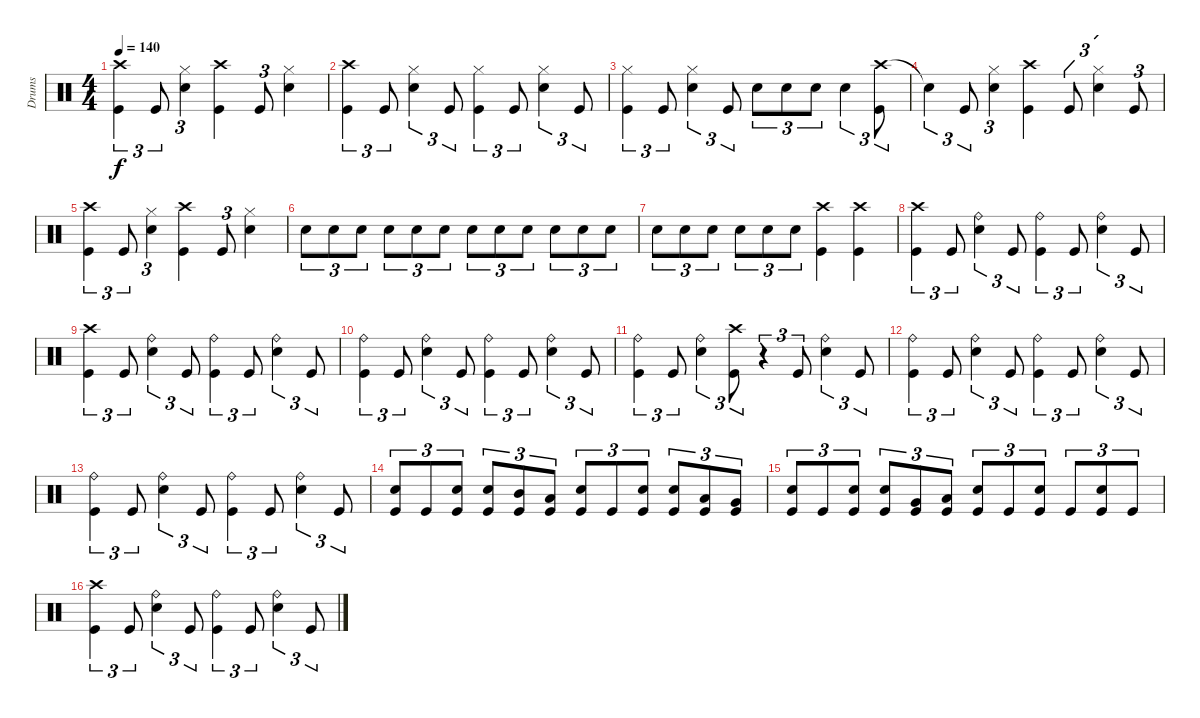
\track ("Drums" "Drums") {instrument percussion}
\staff {score}
\articulation defaults
\ts (4 4)
\tempo 140
\clef neutral
\ks c
("Crash high (hit)" "Kick (hit)").4{tu (3 2) dy f} "Kick (hit)".8{tu (3 2)} ("Hi-Hat (closed)" "Snare (hit) 2").4{tu (3 2)} ("Crash high (hit)" "Kick (hit)").4 "Kick (hit)".8{tu (3 2)} ("Hi-Hat (closed)" "Snare (hit) 2").4 |
("Crash high (hit)" "Kick (hit)").4{tu (3 2)} "Kick (hit)".8{tu (3 2)} ("Hi-Hat (closed)" "Snare (hit) 2").4{tu (3 2)} "Kick (hit)".8{tu (3 2)} ("Hi-Hat (closed)" "Kick (hit)").4{tu (3 2)} "Kick (hit)".8{tu (3 2)} ("Hi-Hat (closed)" "Snare (hit) 2").4{tu (3 2)} "Kick (hit)".8{tu (3 2)} |
("Hi-Hat (closed)" "Kick (hit)").4{tu (3 2)} "Kick (hit)".8{tu (3 2)} ("Hi-Hat (closed)" "Snare (hit) 2").4{tu (3 2)} "Kick (hit)".8{tu (3 2)} "Snare (hit) 2".8{tu (3 2)} "Snare (hit) 2".8{tu (3 2)} "Snare (hit) 2".8{tu (3 2)} "Snare (hit) 2".4{tu (3 2)} ("Crash high (hit)" "Kick (hit)").8{tu (3 2)} |
"Snare (hit)"{t}.4{tu (3 2)} "Kick (hit)".8{tu (3 2)} ("Hi-Hat (closed)" "Snare (hit) 2").4{tu (3 2)} ("Crash high (hit)" "Kick (hit)").4 "Kick (hit)".8{tu (3 2)} ("Hi-Hat (closed)" "Snare (hit) 2").4{tu (3 2)} "Kick (hit)".8{tu (3 2)} |
("Crash high (hit)" "Kick (hit)").4{tu (3 2)} "Kick (hit)".8{tu (3 2)} ("Hi-Hat (closed)" "Snare (hit) 2").4{tu (3 2)} ("Crash high (hit)" "Kick (hit)").4 "Kick (hit)".8{tu (3 2)} ("Hi-Hat (closed)" "Snare (hit) 2").4 |
"Snare (hit) 2".8{tu (3 2)} "Snare (hit) 2".8{tu (3 2)} "Snare (hit) 2".8{tu (3 2)} "Snare (hit) 2".8{tu (3 2)} "Snare (hit) 2".8{tu (3 2)} "Snare (hit) 2".8{tu (3 2)} "Snare (hit) 2".8{tu (3 2)} "Snare (hit) 2".8{tu (3 2)} "Snare (hit) 2".8{tu (3 2)} "Snare (hit) 2".8{tu (3 2)} "Snare (hit) 2".8{tu (3 2)} "Snare (hit) 2".8{tu (3 2)} |
"Snare (hit) 2".8{tu (3 2)} "Snare (hit) 2".8{tu (3 2)} "Snare (hit) 2".8{tu (3 2)} "Snare (hit) 2".8{tu (3 2)} "Snare (hit) 2".8{tu (3 2)} "Snare (hit) 2".8{tu (3 2)} ("Crash high (hit)" "Kick (hit)").4 ("Crash high (hit)" "Kick (hit)").4 |
("Crash high (hit)" "Kick (hit)").4{tu (3 2)} "Kick (hit)".8{tu (3 2)} ("Ride (bell)" "Snare (hit) 2").4{tu (3 2)} "Kick (hit)".8{tu (3 2)} ("Ride (bell)" "Kick (hit)").4{tu (3 2)} "Kick (hit)".8{tu (3 2)} ("Ride (bell)" "Snare (hit) 2").4{tu (3 2)} "Kick (hit)".8{tu (3 2)} |
("Crash high (hit)" "Kick (hit)").4{tu (3 2)} "Kick (hit)".8{tu (3 2)} ("Ride (bell)" "Snare (hit) 2").4{tu (3 2)} "Kick (hit)".8{tu (3 2)} ("Ride (bell)" "Kick (hit)").4{tu (3 2)} "Kick (hit)".8{tu (3 2)} ("Ride (bell)" "Snare (hit) 2").4{tu (3 2)} "Kick (hit)".8{tu (3 2)} |
("Ride (bell)" "Kick (hit)").4{tu (3 2)} "Kick (hit)".8{tu (3 2)} ("Ride (bell)" "Snare (hit) 2").4{tu (3 2)} "Kick (hit)".8{tu (3 2)} ("Ride (bell)" "Kick (hit)").4{tu (3 2)} "Kick (hit)".8{tu (3 2)} ("Ride (bell)" "Snare (hit) 2").4{tu (3 2)} "Kick (hit)".8{tu (3 2)} |
("Ride (bell)" "Kick (hit)").4{tu (3 2)} "Kick (hit)".8{tu (3 2)} ("Ride (bell)" "Snare (hit) 2").4{tu (3 2)} ("Crash high (hit)" "Kick (hit)").8{tu (3 2)} r.4{tu (3 2)} "Kick (hit)".8{tu (3 2)} ("Ride (bell)" "Snare (hit) 2").4{tu (3 2)} "Kick (hit)".8{tu (3 2)} |
("Ride (bell)" "Kick (hit)").4{tu (3 2)} "Kick (hit)".8{tu (3 2)} ("Ride (bell)" "Snare (hit) 2").4{tu (3 2)} "Kick (hit)".8{tu (3 2)} ("Ride (bell)" "Kick (hit)").4{tu (3 2)} "Kick (hit)".8{tu (3 2)} ("Ride (bell)" "Snare (hit) 2").4{tu (3 2)} "Kick (hit)".8{tu (3 2)} |
("Ride (bell)" "Kick (hit)").4{tu (3 2)} "Kick (hit)".8{tu (3 2)} ("Ride (bell)" "Snare (hit) 2").4{tu (3 2)} "Kick (hit)".8{tu (3 2)} ("Ride (bell)" "Kick (hit)").4{tu (3 2)} "Kick (hit)".8{tu (3 2)} ("Ride (bell)" "Snare (hit) 2").4{tu (3 2)} "Kick (hit)".8{tu (3 2)} |
("Snare (hit) 2" "Kick (hit)").8{tu (3 2)} "Kick (hit)".8{tu (3 2)} ("Snare (hit) 2" "Kick (hit)").8{tu (3 2)} ("Snare (hit) 2" "Kick (hit)").8{tu (3 2)} ("Mid Tom (hit)" "Kick (hit)").8{tu (3 2)} ("Low Tom (hit)" "Kick (hit)").8{tu (3 2)} ("Snare (hit) 2" "Kick (hit)").8{tu (3 2)} "Kick (hit)".8{tu (3 2)} ("Snare (hit) 2" "Kick (hit)").8{tu (3 2)} ("Snare (hit) 2" "Kick (hit)").8{tu (3 2)} ("Low Tom (hit)" "Kick (hit)").8{tu (3 2)} ("Very Low Tom (hit)" "Kick (hit)").8{tu (3 2)} |
("Snare (hit) 2" "Kick (hit)").8{tu (3 2)} "Kick (hit)".8{tu (3 2)} ("Snare (hit) 2" "Kick (hit)").8{tu (3 2)} ("Snare (hit) 2" "Kick (hit)").8{tu (3 2)} ("Very Low Tom (hit)" "Kick (hit)").8{tu (3 2)} ("Low Floor Tom (hit)" "Kick (hit)").8{tu (3 2)} ("Snare (hit) 2" "Kick (hit)").8{tu (3 2)} "Kick (hit)".8{tu (3 2)} ("Snare (hit) 2" "Kick (hit)").8{tu (3 2)} "Kick (hit)".8{tu (3 2)} ("Snare (hit) 2" "Kick (hit)").8{tu (3 2)} "Kick (hit)".8{tu (3 2)} |
("Crash high (hit)" "Kick (hit)").4{tu (3 2)} "Kick (hit)".8{tu (3 2)} ("Ride (bell)" "Snare (hit) 2").4{tu (3 2)} "Kick (hit)".8{tu (3 2)} ("Ride (bell)" "Kick (hit)").4{tu (3 2)} "Kick (hit)".8{tu (3 2)} ("Ride (bell)" "Snare (hit) 2").4{tu (3 2)} "Kick (hit)".8{tu (3 2)}
